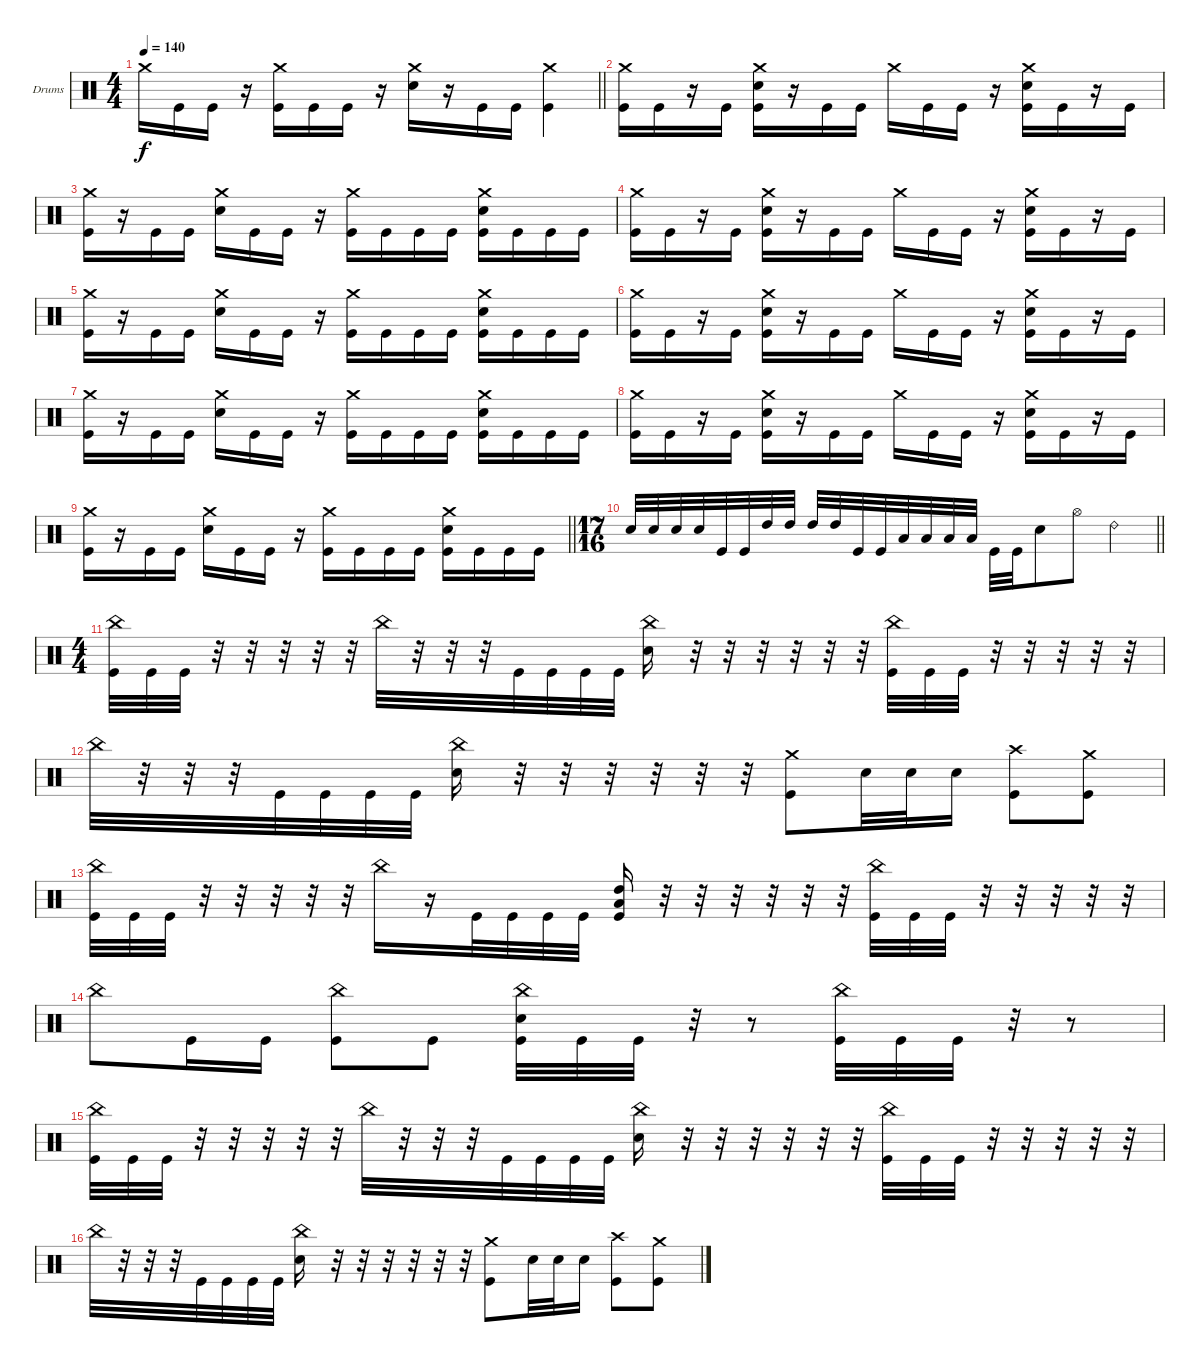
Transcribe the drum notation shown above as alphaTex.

\bracketExtendMode groupsimilarinstruments
\firstSystemTrackNameOrientation horizontal
\otherSystemsTrackNameOrientation horizontal
\track ("Drumkit" "Drums") {instrument percussion}
\staff {score}
\articulation defaults
\ts (4 4)
\tempo 140
\clef neutral
\barLineRight lightlight
\ks c "Crash medium (hit)".16{dy f} "Kick (hit)".16 "Kick (hit)".16
r.16 ("Kick (hit)" "Crash medium (hit)").16 "Kick (hit)".16 "Kick (hit)".16 r.16 ("Crash medium (hit)" "Snare (hit) 2").16 r.16 "Kick (hit)".16 "Kick (hit)".16 ("Kick (hit)" "Crash medium (hit)").4 |
\section ("" "")
("Kick (hit)" "Crash medium (hit)").16 "Kick (hit)".16 r.16 "Kick (hit)".16 ("Kick (hit)" "Crash medium (hit)" "Snare (hit) 2").16 r.16 "Kick (hit)".16 "Kick (hit)".16 "Crash medium (hit)".16 "Kick (hit)".16 "Kick (hit)".16 r.16 ("Kick (hit)" "Crash medium (hit)" "Snare (hit) 2").16 "Kick (hit)".16 r.16 "Kick (hit)".16 |
("Kick (hit)" "Crash medium (hit)").16 r.16 "Kick (hit)".16 "Kick (hit)".16 ("Crash medium (hit)" "Snare (hit) 2").16 "Kick (hit)".16 "Kick (hit)".16 r.16 ("Kick (hit)" "Crash medium (hit)").16 "Kick (hit)".16 "Kick (hit)".16 "Kick (hit)".16 ("Kick (hit)" "Crash medium (hit)" "Snare (hit) 2").16 "Kick (hit)".16 "Kick (hit)".16 "Kick (hit)".16 |
("Kick (hit)" "Crash medium (hit)").16 "Kick (hit)".16 r.16 "Kick (hit)".16 ("Kick (hit)" "Crash medium (hit)" "Snare (hit) 2").16 r.16 "Kick (hit)".16 "Kick (hit)".16 "Crash medium (hit)".16 "Kick (hit)".16 "Kick (hit)".16 r.16 ("Kick (hit)" "Crash medium (hit)" "Snare (hit) 2").16 "Kick (hit)".16 r.16 "Kick (hit)".16 |
("Kick (hit)" "Crash medium (hit)").16 r.16 "Kick (hit)".16 "Kick (hit)".16 ("Crash medium (hit)" "Snare (hit) 2").16 "Kick (hit)".16 "Kick (hit)".16 r.16 ("Kick (hit)" "Crash medium (hit)").16 "Kick (hit)".16 "Kick (hit)".16 "Kick (hit)".16 ("Kick (hit)" "Crash medium (hit)" "Snare (hit) 2").16 "Kick (hit)".16 "Kick (hit)".16 "Kick (hit)".16 |
("Kick (hit)" "Crash medium (hit)").16 "Kick (hit)".16 r.16 "Kick (hit)".16 ("Kick (hit)" "Crash medium (hit)" "Snare (hit) 2").16 r.16 "Kick (hit)".16 "Kick (hit)".16 "Crash medium (hit)".16 "Kick (hit)".16 "Kick (hit)".16 r.16 ("Kick (hit)" "Crash medium (hit)" "Snare (hit) 2").16 "Kick (hit)".16 r.16 "Kick (hit)".16 |
("Kick (hit)" "Crash medium (hit)").16 r.16 "Kick (hit)".16 "Kick (hit)".16 ("Crash medium (hit)" "Snare (hit) 2").16 "Kick (hit)".16 "Kick (hit)".16 r.16 ("Kick (hit)" "Crash medium (hit)").16 "Kick (hit)".16 "Kick (hit)".16 "Kick (hit)".16 ("Kick (hit)" "Crash medium (hit)" "Snare (hit) 2").16 "Kick (hit)".16 "Kick (hit)".16 "Kick (hit)".16 |
("Kick (hit)" "Crash medium (hit)").16 "Kick (hit)".16 r.16 "Kick (hit)".16 ("Kick (hit)" "Crash medium (hit)" "Snare (hit) 2").16 r.16 "Kick (hit)".16 "Kick (hit)".16 "Crash medium (hit)".16 "Kick (hit)".16 "Kick (hit)".16 r.16 ("Kick (hit)" "Crash medium (hit)" "Snare (hit) 2").16 "Kick (hit)".16 r.16 "Kick (hit)".16 |
\barLineRight lightlight
("Kick (hit)" "Crash medium (hit)").16 r.16 "Kick (hit)".16 "Kick (hit)".16 ("Crash medium (hit)" "Snare (hit) 2").16 "Kick (hit)".16 "Kick (hit)".16 r.16 ("Kick (hit)" "Crash medium (hit)").16 "Kick (hit)".16 "Kick (hit)".16 "Kick (hit)".16 ("Kick (hit)" "Crash medium (hit)" "Snare (hit) 2").16 "Kick (hit)".16 "Kick (hit)".16 "Kick (hit)".16 |
\ts (17 16)
\section ("" "")
\barLineRight lightlight "Snare (hit) 2".32 "Snare (hit) 2".32 "Snare (hit) 2".32 "Snare (hit) 2".32 "Kick (hit)".32 "Kick (hit)".32 "High Tom (hit)".32 "High Tom (hit)".32 "High Tom (hit)".32 "High Tom (hit)".32 "Kick (hit)".32 "Kick (hit)".32 "Low Tom (hit)".32 "Low Tom (hit)".32 "Low Tom (hit)".32 "Low Tom (hit)".32 "Kick (hit)".32 "Kick (hit)".32 "Snare (hit) 2".8 "Hi-Hat (open)".8 "Ride (bell) 2".4
|
\ts (4 4)
\section ("" "")
("Kick (hit)" "China (hit)").32 "Kick (hit)".32 "Kick (hit)".32 r.32 r.32 r.32 r.32 r.32 "China (hit)".32 r.32 r.32 r.32 "Kick (hit)".32 "Kick (hit)".32 "Kick (hit)".32 "Kick (hit)".32 ("Snare (hit) 2" "China (hit)").16 r.32 r.32 r.32 r.32 r.32 r.32 ("China (hit)" "Kick (hit)").32 "Kick (hit)".32 "Kick (hit)".32 r.32 r.32 r.32 r.32 r.32 |
"China (hit)".32 r.32 r.32 r.32 "Kick (hit)".32 "Kick (hit)".32 "Kick (hit)".32 "Kick (hit)".32 ("Snare (hit) 2" "China (hit)").16 r.32 r.32 r.32 r.32 r.32 r.32 ("Crash medium (hit)" "Kick (hit)").8 "Snare (hit) 2".32 "Snare (hit) 2".32 "Snare (hit) 2".16 ("Kick (hit)" "Crash high (hit)").8 ("Kick (hit)" "Crash medium (hit)").8 |
("Kick (hit)" "China (hit)").32 "Kick (hit)".32 "Kick (hit)".32 r.32 r.32 r.32 r.32 r.32 "China (hit)".16 r.16 "Kick (hit)".32 "Kick (hit)".32 "Kick (hit)".32 "Kick (hit)".32 ("Kick (hit)" "Low Tom (hit)" "High Tom (hit)").16 r.32 r.32 r.32 r.32 r.32 r.32 ("Kick (hit)" "China (hit)").32 "Kick (hit)".32 "Kick (hit)".32 r.32 r.32 r.32 r.32 r.32 |
"China (hit)".8 "Kick (hit)".16 "Kick (hit)".16 ("Kick (hit)" "China (hit)").8 "Kick (hit)".8 ("Kick (hit)" "China (hit)" "Snare (hit) 2").32 "Kick (hit)".32 "Kick (hit)".32 r.32 r.8 ("China (hit)" "Kick (hit)").32 "Kick (hit)".32 "Kick (hit)".32 r.32 r.8 |
("Kick (hit)" "China (hit)").32 "Kick (hit)".32 "Kick (hit)".32 r.32 r.32 r.32 r.32 r.32 "China (hit)".32 r.32 r.32 r.32 "Kick (hit)".32 "Kick (hit)".32 "Kick (hit)".32 "Kick (hit)".32 ("Snare (hit) 2" "China (hit)").16 r.32 r.32 r.32 r.32 r.32 r.32 ("China (hit)" "Kick (hit)").32 "Kick (hit)".32 "Kick (hit)".32 r.32 r.32 r.32 r.32 r.32 |
"China (hit)".32 r.32 r.32 r.32 "Kick (hit)".32 "Kick (hit)".32 "Kick (hit)".32 "Kick (hit)".32 ("Snare (hit) 2" "China (hit)").16 r.32 r.32 r.32 r.32 r.32 r.32 ("Crash medium (hit)" "Kick (hit)").8 "Snare (hit) 2".32 "Snare (hit) 2".32 "Snare (hit) 2".16 ("Kick (hit)" "Crash high (hit)").8 ("Kick (hit)" "Crash medium (hit)").8
